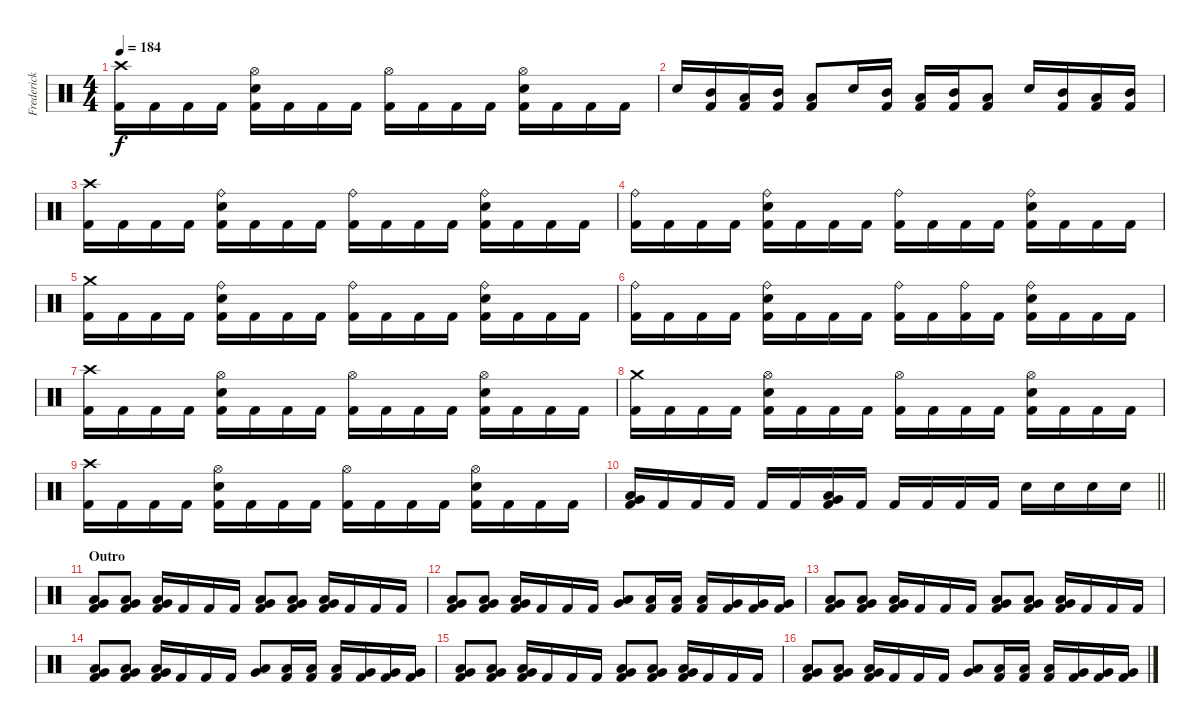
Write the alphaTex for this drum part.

\track ("Frederick Ehmke" "Frederick ") {instrument percussion}
\staff {score}
\articulation defaults
\ts (4 4)
\tempo 184
\clef neutral
\ks c
("Kick (hit) 2" "Crash high (hit)").16{dy f} "Kick (hit) 2".16 "Kick (hit) 2".16 "Kick (hit) 2".16 ("Electric Snare (hit)" "Kick (hit) 2" "Hi-Hat (open)").16 "Kick (hit) 2".16 "Kick (hit) 2".16 "Kick (hit) 2".16 ("Kick (hit) 2" "Hi-Hat (open)").16 "Kick (hit) 2".16 "Kick (hit) 2".16 "Kick (hit) 2".16 ("Electric Snare (hit)" "Kick (hit) 2" "Hi-Hat (open)").16 "Kick (hit) 2".16 "Kick (hit) 2".16 "Kick (hit) 2".16 |
"Electric Snare (hit)".16 ("Kick (hit) 2" "Mid Tom (hit)").16 ("Kick (hit) 2" "Low Floor Tom (hit)").16 ("Kick (hit) 2" "Mid Tom (hit)").16 ("Kick (hit) 2" "Low Floor Tom (hit)").8 "Electric Snare (hit)".16 ("Kick (hit) 2" "Mid Tom (hit)").16 ("Kick (hit) 2" "Low Floor Tom (hit)").16 ("Kick (hit) 2" "Mid Tom (hit)").16 ("Kick (hit) 2" "Low Floor Tom (hit)").8 "Electric Snare (hit)".16 ("Kick (hit) 2" "Mid Tom (hit)").16 ("Kick (hit) 2" "Low Floor Tom (hit)").16 ("Kick (hit) 2" "Mid Tom (hit)").16 |
("Kick (hit) 2" "Crash high (hit)").16 "Kick (hit) 2".16 "Kick (hit) 2".16 "Kick (hit) 2".16 ("Electric Snare (hit)" "Kick (hit) 2" "Ride (bell)").16 "Kick (hit) 2".16 "Kick (hit) 2".16 "Kick (hit) 2".16 ("Kick (hit) 2" "Ride (bell)").16 "Kick (hit) 2".16 "Kick (hit) 2".16 "Kick (hit) 2".16 ("Electric Snare (hit)" "Kick (hit) 2" "Ride (bell)").16 "Kick (hit) 2".16 "Kick (hit) 2".16 "Kick (hit) 2".16 |
("Kick (hit) 2" "Ride (bell)").16 "Kick (hit) 2".16 "Kick (hit) 2".16 "Kick (hit) 2".16 ("Electric Snare (hit)" "Kick (hit) 2" "Ride (bell)").16 "Kick (hit) 2".16 "Kick (hit) 2".16 "Kick (hit) 2".16 ("Kick (hit) 2" "Ride (bell)").16 "Kick (hit) 2".16 "Kick (hit) 2".16 "Kick (hit) 2".16 ("Electric Snare (hit)" "Kick (hit) 2" "Ride (bell)").16 "Kick (hit) 2".16 "Kick (hit) 2".16 "Kick (hit) 2".16 |
("Kick (hit) 2" "Crash medium (hit)").16 "Kick (hit) 2".16 "Kick (hit) 2".16 "Kick (hit) 2".16 ("Electric Snare (hit)" "Kick (hit) 2" "Ride (bell)").16 "Kick (hit) 2".16 "Kick (hit) 2".16 "Kick (hit) 2".16 ("Kick (hit) 2" "Ride (bell)").16 "Kick (hit) 2".16 "Kick (hit) 2".16 "Kick (hit) 2".16 ("Electric Snare (hit)" "Kick (hit) 2" "Ride (bell)").16 "Kick (hit) 2".16 "Kick (hit) 2".16 "Kick (hit) 2".16 |
("Kick (hit) 2" "Ride (bell)").16 "Kick (hit) 2".16 "Kick (hit) 2".16 "Kick (hit) 2".16 ("Electric Snare (hit)" "Kick (hit) 2" "Ride (bell)").16 "Kick (hit) 2".16 "Kick (hit) 2".16 "Kick (hit) 2".16 ("Kick (hit) 2" "Ride (bell)").16 "Kick (hit) 2".16 ("Kick (hit) 2" "Ride (bell)").16 "Kick (hit) 2".16 ("Electric Snare (hit)" "Kick (hit) 2" "Ride (bell)").16 "Kick (hit) 2".16 "Kick (hit) 2".16 "Kick (hit) 2".16 |
("Kick (hit) 2" "Crash high (hit)").16 "Kick (hit) 2".16 "Kick (hit) 2".16 "Kick (hit) 2".16 ("Electric Snare (hit)" "Kick (hit) 2" "Hi-Hat (open)").16 "Kick (hit) 2".16 "Kick (hit) 2".16 "Kick (hit) 2".16 ("Kick (hit) 2" "Hi-Hat (open)").16 "Kick (hit) 2".16 "Kick (hit) 2".16 "Kick (hit) 2".16 ("Electric Snare (hit)" "Kick (hit) 2" "Hi-Hat (open)").16 "Kick (hit) 2".16 "Kick (hit) 2".16 "Kick (hit) 2".16 |
("Kick (hit) 2" "Crash medium (hit)").16 "Kick (hit) 2".16 "Kick (hit) 2".16 "Kick (hit) 2".16 ("Electric Snare (hit)" "Kick (hit) 2" "Hi-Hat (open)").16 "Kick (hit) 2".16 "Kick (hit) 2".16 "Kick (hit) 2".16 ("Kick (hit) 2" "Hi-Hat (open)").16 "Kick (hit) 2".16 "Kick (hit) 2".16 "Kick (hit) 2".16 ("Electric Snare (hit)" "Kick (hit) 2" "Hi-Hat (open)").16 "Kick (hit) 2".16 "Kick (hit) 2".16 "Kick (hit) 2".16 |
("Kick (hit) 2" "Crash high (hit)").16 "Kick (hit) 2".16 "Kick (hit) 2".16 "Kick (hit) 2".16 ("Electric Snare (hit)" "Kick (hit) 2" "Hi-Hat (open)").16 "Kick (hit) 2".16 "Kick (hit) 2".16 "Kick (hit) 2".16 ("Kick (hit) 2" "Hi-Hat (open)").16 "Kick (hit) 2".16 "Kick (hit) 2".16 "Kick (hit) 2".16 ("Electric Snare (hit)" "Kick (hit) 2" "Hi-Hat (open)").16 "Kick (hit) 2".16 "Kick (hit) 2".16 "Kick (hit) 2".16 |
\barLineRight lightlight
("Kick (hit) 2" "Low Tom (hit)" "Very Low Tom (hit)").16 "Kick (hit) 2".16 "Kick (hit) 2".16 "Kick (hit) 2".16 "Kick (hit) 2".16 "Kick (hit) 2".16 ("Kick (hit) 2" "Very Low Tom (hit)" "Low Floor Tom (hit)").16 "Kick (hit) 2".16 "Kick (hit) 2".16 "Kick (hit) 2".16 "Kick (hit) 2".16 "Kick (hit) 2".16 "Electric Snare (hit)".16 "Electric Snare (hit)".16 "Electric Snare (hit)".16 "Electric Snare (hit)".16 |
\section ("" "Outro")
("Kick (hit) 2" "Low Tom (hit)" "Very Low Tom (hit)").8 ("Kick (hit) 2" "Low Tom (hit)" "Very Low Tom (hit)").8 ("Kick (hit) 2" "Low Floor Tom (hit)" "Very Low Tom (hit)").16 "Kick (hit) 2".16 "Kick (hit) 2".16 "Kick (hit) 2".16 ("Kick (hit) 2" "Low Tom (hit)" "Very Low Tom (hit)").8 ("Kick (hit) 2" "Low Tom (hit)" "Very Low Tom (hit)").8 ("Kick (hit) 2" "Very Low Tom (hit)" "Low Floor Tom (hit)").16 "Kick (hit) 2".16 "Kick (hit) 2".16 "Kick (hit) 2".16 |
("Kick (hit) 2" "Low Tom (hit)" "Very Low Tom (hit)").8 ("Kick (hit) 2" "Low Tom (hit)" "Very Low Tom (hit)").8 ("Kick (hit) 2" "Low Floor Tom (hit)" "Very Low Tom (hit)").16 "Kick (hit) 2".16 "Kick (hit) 2".16 "Kick (hit) 2".16 ("Low Tom (hit)" "Very Low Tom (hit)").8 ("Kick (hit) 2" "Low Tom (hit)").16 ("Kick (hit) 2" "Low Tom (hit)").16 ("Kick (hit) 2" "Low Tom (hit)").16 ("Kick (hit) 2" "Very Low Tom (hit)").16 ("Kick (hit) 2" "Very Low Tom (hit)").16 ("Kick (hit) 2" "Very Low Tom (hit)").16 |
("Kick (hit) 2" "Low Tom (hit)" "Very Low Tom (hit)").8 ("Kick (hit) 2" "Low Tom (hit)" "Very Low Tom (hit)").8 ("Kick (hit) 2" "Low Floor Tom (hit)" "Very Low Tom (hit)").16 "Kick (hit) 2".16 "Kick (hit) 2".16 "Kick (hit) 2".16 ("Kick (hit) 2" "Low Tom (hit)" "Very Low Tom (hit)").8 ("Kick (hit) 2" "Low Tom (hit)" "Very Low Tom (hit)").8 ("Kick (hit) 2" "Very Low Tom (hit)" "Low Floor Tom (hit)").16 "Kick (hit) 2".16 "Kick (hit) 2".16 "Kick (hit) 2".16 |
("Kick (hit) 2" "Low Tom (hit)" "Very Low Tom (hit)").8 ("Kick (hit) 2" "Low Tom (hit)" "Very Low Tom (hit)").8 ("Kick (hit) 2" "Low Floor Tom (hit)" "Very Low Tom (hit)").16 "Kick (hit) 2".16 "Kick (hit) 2".16 "Kick (hit) 2".16 ("Low Tom (hit)" "Very Low Tom (hit)").8 ("Kick (hit) 2" "Low Tom (hit)").16 ("Kick (hit) 2" "Low Tom (hit)").16 ("Kick (hit) 2" "Low Tom (hit)").16 ("Kick (hit) 2" "Very Low Tom (hit)").16 ("Kick (hit) 2" "Very Low Tom (hit)").16 ("Kick (hit) 2" "Very Low Tom (hit)").16 |
("Kick (hit) 2" "Low Tom (hit)" "Very Low Tom (hit)").8 ("Kick (hit) 2" "Low Tom (hit)" "Very Low Tom (hit)").8 ("Kick (hit) 2" "Low Floor Tom (hit)" "Very Low Tom (hit)").16 "Kick (hit) 2".16 "Kick (hit) 2".16 "Kick (hit) 2".16 ("Kick (hit) 2" "Low Tom (hit)" "Very Low Tom (hit)").8 ("Kick (hit) 2" "Low Tom (hit)" "Very Low Tom (hit)").8 ("Kick (hit) 2" "Very Low Tom (hit)" "Low Floor Tom (hit)").16 "Kick (hit) 2".16 "Kick (hit) 2".16 "Kick (hit) 2".16 |
("Kick (hit) 2" "Low Tom (hit)" "Very Low Tom (hit)").8 ("Kick (hit) 2" "Low Tom (hit)" "Very Low Tom (hit)").8 ("Kick (hit) 2" "Low Floor Tom (hit)" "Very Low Tom (hit)").16 "Kick (hit) 2".16 "Kick (hit) 2".16 "Kick (hit) 2".16 ("Low Tom (hit)" "Very Low Tom (hit)").8 ("Kick (hit) 2" "Low Tom (hit)").16 ("Kick (hit) 2" "Low Tom (hit)").16 ("Kick (hit) 2" "Low Tom (hit)").16 ("Kick (hit) 2" "Very Low Tom (hit)").16 ("Kick (hit) 2" "Very Low Tom (hit)").16 ("Kick (hit) 2" "Very Low Tom (hit)").16
